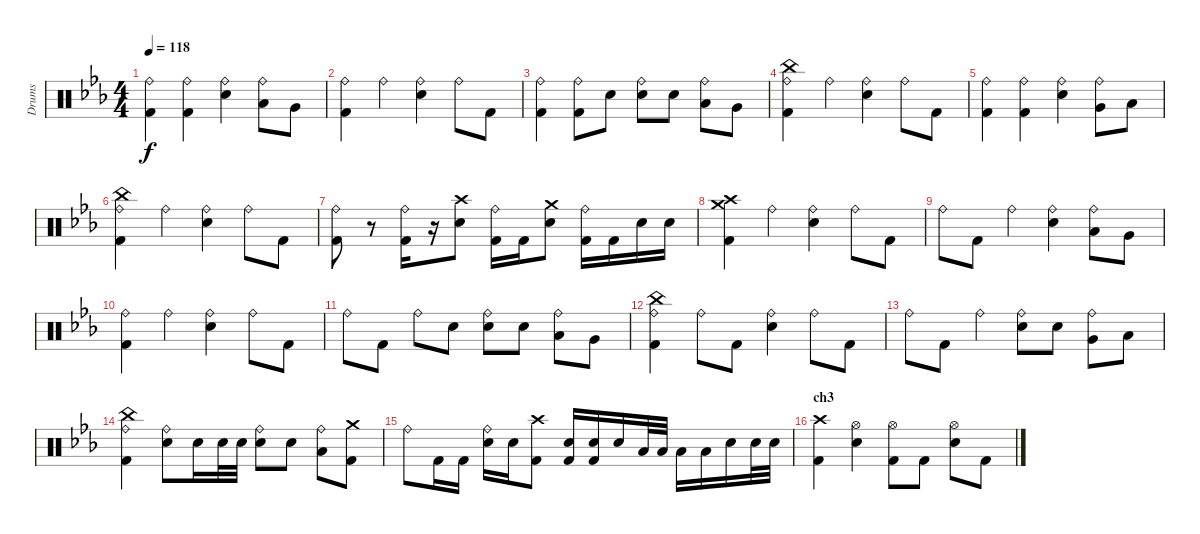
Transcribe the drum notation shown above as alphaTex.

\track ("Drums" "Drums") {instrument percussion}
\staff {score}
\articulation defaults
\ts (4 4)
\tempo 118
\clef neutral
\ks cminor
("Kick (hit) 2" "Ride (bell)").4{dy f} ("Kick (hit) 2" "Ride (bell)").4 ("Ride (bell)" "Electric Snare (hit)").4 ("Ride (bell)" "Low Tom (hit)").8 "Very Low Tom (hit)".8 |
("Kick (hit) 2" "Ride (bell)").4 "Ride (bell)".4 ("Ride (bell)" "Electric Snare (hit)").4 "Ride (bell)".8 "Kick (hit) 2".8 |
("Kick (hit) 2" "Ride (bell)").4 ("Kick (hit) 2" "Ride (bell)").8 "Electric Snare (hit)".8 ("Ride (bell)" "Electric Snare (hit)").8 "Electric Snare (hit)".8 ("Ride (bell)" "Low Tom (hit)").8 "Very Low Tom (hit)".8 |
("Kick (hit) 2" "Ride (bell)" "China (hit)").4 "Ride (bell)".4 ("Ride (bell)" "Electric Snare (hit)").4 "Ride (bell)".8 "Kick (hit) 2".8 |
("Kick (hit) 2" "Ride (bell)").4 ("Kick (hit) 2" "Ride (bell)").4 ("Ride (bell)" "Electric Snare (hit)").4 ("Ride (bell)" "Very Low Tom (hit)").8 "Low Floor Tom (hit)".8 |
("Kick (hit) 2" "Ride (bell)" "China (hit)").4 "Ride (bell)".4 ("Ride (bell)" "Electric Snare (hit)").4 "Ride (bell)".8 "Kick (hit) 2".8 |
("Kick (hit) 2" "Ride (bell)").8 r.8 ("Kick (hit) 2" "Ride (bell)").16 r.16 ("Electric Snare (hit)" "Crash high (hit)").8 ("Kick (hit) 2" "Ride (bell)").16 "Kick (hit) 2".16 ("Electric Snare (hit)" "Crash medium (hit)").8 ("Kick (hit) 2" "Ride (bell)").16 "Kick (hit) 2".16 "Electric Snare (hit)".16 "Electric Snare (hit)".16 |
("Kick (hit) 2" "Crash high (hit)" "Crash medium (hit)").4 "Ride (bell)".4 ("Ride (bell)" "Electric Snare (hit)").4 "Ride (bell)".8 "Kick (hit) 2".8 |
"Ride (bell)".8 "Kick (hit) 2".8 "Ride (bell)".4 ("Ride (bell)" "Electric Snare (hit)").4 ("Ride (bell)" "Low Tom (hit)").8 "Very Low Tom (hit)".8 |
("Kick (hit) 2" "Ride (bell)").4 "Ride (bell)".4 ("Ride (bell)" "Electric Snare (hit)").4 "Ride (bell)".8 "Kick (hit) 2".8 |
"Ride (bell)".8 "Kick (hit) 2".8 "Ride (bell)".8 "Electric Snare (hit)".8 ("Ride (bell)" "Electric Snare (hit)").8 "Electric Snare (hit)".8 ("Ride (bell)" "Low Tom (hit)").8 "Very Low Tom (hit)".8 |
("Kick (hit) 2" "Ride (bell)" "China (hit)").4 "Ride (bell)".8 "Kick (hit) 2".8 ("Ride (bell)" "Electric Snare (hit)").4 "Ride (bell)".8 "Kick (hit) 2".8 |
"Ride (bell)".8 "Kick (hit) 2".8 "Ride (bell)".4 ("Ride (bell)" "Electric Snare (hit)").8 "Electric Snare (hit)".8 ("Ride (bell)" "Very Low Tom (hit)").8 "Low Floor Tom (hit)".8 |
("Kick (hit) 2" "Ride (bell)" "China (hit)").4 ("Ride (bell)" "Electric Snare (hit)").8 "Electric Snare (hit)".16 "Electric Snare (hit)".32 "Electric Snare (hit)".32 ("Ride (bell)" "Electric Snare (hit)").8 "Electric Snare (hit)".8 ("Ride (bell)" "Low Floor Tom (hit)").8 ("Kick (hit) 2" "Crash medium (hit)").8 |
"Ride (bell)".8 "Kick (hit) 2".16 "Kick (hit) 2".16 ("Ride (bell)" "Electric Snare (hit)").16 "Electric Snare (hit)".16 ("Kick (hit) 2" "Crash high (hit)").8 ("Kick (hit) 2" "Electric Snare (hit)").16 ("Kick (hit) 2" "Electric Snare (hit)").16 "Electric Snare (hit)".16 "Low Tom (hit)".32 "Low Tom (hit)".32 "Low Tom (hit)".16 "Low Tom (hit)".16 "Electric Snare (hit)".16 "Electric Snare (hit)".32 "Electric Snare (hit)".32 |
\section ("" "ch3")
("Kick (hit) 2" "Crash high (hit)").4 ("Hi-Hat (open)" "Electric Snare (hit)").4 ("Kick (hit) 2" "Hi-Hat (open)").8 "Kick (hit) 2".8 ("Hi-Hat (open)" "Electric Snare (hit)").8 "Kick (hit) 2".8
